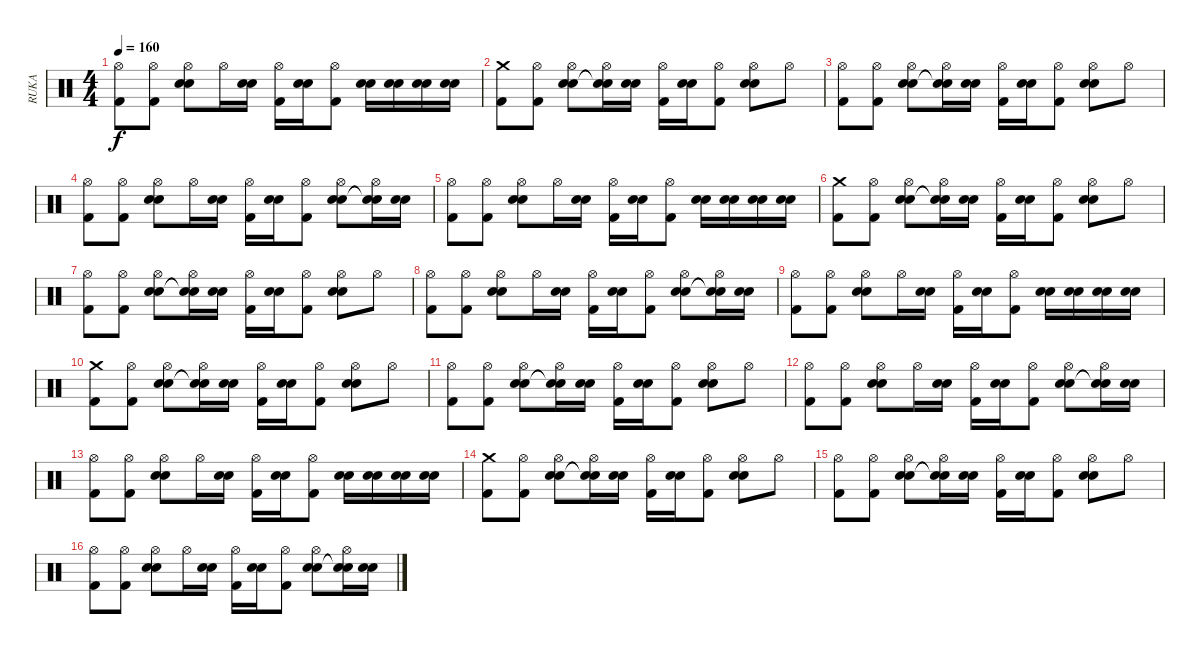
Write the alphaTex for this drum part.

\track ("RUKA" "RUKA") {instrument percussion}
\staff {score}
\articulation defaults
\ts (4 4)
\tempo 160
\clef neutral
\ks c
("Hi-Hat (open)" "Kick (hit) 2").8{dy f} ("Hi-Hat (open)" "Kick (hit) 2").8 ("Hi-Hat (open)" "Snare (hit) 2" "Electric Snare (hit)").8 "Hi-Hat (open)".16 ("Snare (hit) 2" "Electric Snare (hit)").16 ("Hi-Hat (open)" "Kick (hit) 2").16 ("Snare (hit) 2" "Electric Snare (hit)").16 ("Hi-Hat (open)" "Kick (hit) 2").8 ("Snare (hit) 2" "Electric Snare (hit)").16 ("Snare (hit) 2" "Electric Snare (hit)").16 ("Snare (hit) 2" "Electric Snare (hit)").16 ("Snare (hit) 2" "Electric Snare (hit)").16 |
("Crash medium (hit)" "Kick (hit) 2").8 ("Hi-Hat (open)" "Kick (hit) 2").8 ("Hi-Hat (open)" "Snare (hit) 2" "Electric Snare (hit)").8 ("Hi-Hat (open)" "Snare (hit)"{t} "Snare (hit)"{t}).16 ("Snare (hit) 2" "Electric Snare (hit)").16 ("Hi-Hat (open)" "Kick (hit) 2").16 ("Snare (hit) 2" "Electric Snare (hit)").16 ("Hi-Hat (open)" "Kick (hit) 2").8 ("Hi-Hat (open)" "Snare (hit) 2" "Electric Snare (hit)").8 "Hi-Hat (open)".8 |
("Hi-Hat (open)" "Kick (hit) 2").8 ("Hi-Hat (open)" "Kick (hit) 2").8 ("Hi-Hat (open)" "Snare (hit) 2" "Electric Snare (hit)").8 ("Hi-Hat (open)" "Snare (hit)"{t} "Snare (hit)"{t}).16 ("Snare (hit) 2" "Electric Snare (hit)").16 ("Hi-Hat (open)" "Kick (hit) 2").16 ("Snare (hit) 2" "Electric Snare (hit)").16 ("Hi-Hat (open)" "Kick (hit) 2").8 ("Hi-Hat (open)" "Snare (hit) 2" "Electric Snare (hit)").8 "Hi-Hat (open)".8 |
("Hi-Hat (open)" "Kick (hit) 2").8 ("Hi-Hat (open)" "Kick (hit) 2").8 ("Hi-Hat (open)" "Snare (hit) 2" "Electric Snare (hit)").8 "Hi-Hat (open)".16 ("Snare (hit) 2" "Electric Snare (hit)").16 ("Hi-Hat (open)" "Kick (hit) 2").16 ("Snare (hit) 2" "Electric Snare (hit)").16 ("Hi-Hat (open)" "Kick (hit) 2").8 ("Hi-Hat (open)" "Snare (hit) 2" "Electric Snare (hit)").8 ("Hi-Hat (open)" "Snare (hit)"{t} "Snare (hit)"{t}).16 ("Snare (hit) 2" "Electric Snare (hit)").16 |
("Hi-Hat (open)" "Kick (hit) 2").8 ("Hi-Hat (open)" "Kick (hit) 2").8 ("Hi-Hat (open)" "Snare (hit) 2" "Electric Snare (hit)").8 "Hi-Hat (open)".16 ("Snare (hit) 2" "Electric Snare (hit)").16 ("Hi-Hat (open)" "Kick (hit) 2").16 ("Snare (hit) 2" "Electric Snare (hit)").16 ("Hi-Hat (open)" "Kick (hit) 2").8 ("Snare (hit) 2" "Electric Snare (hit)").16 ("Snare (hit) 2" "Electric Snare (hit)").16 ("Snare (hit) 2" "Electric Snare (hit)").16 ("Snare (hit) 2" "Electric Snare (hit)").16 |
("Crash medium (hit)" "Kick (hit) 2").8 ("Hi-Hat (open)" "Kick (hit) 2").8 ("Hi-Hat (open)" "Snare (hit) 2" "Electric Snare (hit)").8 ("Hi-Hat (open)" "Snare (hit)"{t} "Snare (hit)"{t}).16 ("Snare (hit) 2" "Electric Snare (hit)").16 ("Hi-Hat (open)" "Kick (hit) 2").16 ("Snare (hit) 2" "Electric Snare (hit)").16 ("Hi-Hat (open)" "Kick (hit) 2").8 ("Hi-Hat (open)" "Snare (hit) 2" "Electric Snare (hit)").8 "Hi-Hat (open)".8 |
("Hi-Hat (open)" "Kick (hit) 2").8 ("Hi-Hat (open)" "Kick (hit) 2").8 ("Hi-Hat (open)" "Snare (hit) 2" "Electric Snare (hit)").8 ("Hi-Hat (open)" "Snare (hit)"{t} "Snare (hit)"{t}).16 ("Snare (hit) 2" "Electric Snare (hit)").16 ("Hi-Hat (open)" "Kick (hit) 2").16 ("Snare (hit) 2" "Electric Snare (hit)").16 ("Hi-Hat (open)" "Kick (hit) 2").8 ("Hi-Hat (open)" "Snare (hit) 2" "Electric Snare (hit)").8 "Hi-Hat (open)".8 |
("Hi-Hat (open)" "Kick (hit) 2").8 ("Hi-Hat (open)" "Kick (hit) 2").8 ("Hi-Hat (open)" "Snare (hit) 2" "Electric Snare (hit)").8 "Hi-Hat (open)".16 ("Snare (hit) 2" "Electric Snare (hit)").16 ("Hi-Hat (open)" "Kick (hit) 2").16 ("Snare (hit) 2" "Electric Snare (hit)").16 ("Hi-Hat (open)" "Kick (hit) 2").8 ("Hi-Hat (open)" "Snare (hit) 2" "Electric Snare (hit)").8 ("Hi-Hat (open)" "Snare (hit)"{t} "Snare (hit)"{t}).16 ("Snare (hit) 2" "Electric Snare (hit)").16 |
("Hi-Hat (open)" "Kick (hit) 2").8 ("Hi-Hat (open)" "Kick (hit) 2").8 ("Hi-Hat (open)" "Snare (hit) 2" "Electric Snare (hit)").8 "Hi-Hat (open)".16 ("Snare (hit) 2" "Electric Snare (hit)").16 ("Hi-Hat (open)" "Kick (hit) 2").16 ("Snare (hit) 2" "Electric Snare (hit)").16 ("Hi-Hat (open)" "Kick (hit) 2").8 ("Snare (hit) 2" "Electric Snare (hit)").16 ("Snare (hit) 2" "Electric Snare (hit)").16 ("Snare (hit) 2" "Electric Snare (hit)").16 ("Snare (hit) 2" "Electric Snare (hit)").16 |
("Crash medium (hit)" "Kick (hit) 2").8 ("Hi-Hat (open)" "Kick (hit) 2").8 ("Hi-Hat (open)" "Snare (hit) 2" "Electric Snare (hit)").8 ("Hi-Hat (open)" "Snare (hit)"{t} "Snare (hit)"{t}).16 ("Snare (hit) 2" "Electric Snare (hit)").16 ("Hi-Hat (open)" "Kick (hit) 2").16 ("Snare (hit) 2" "Electric Snare (hit)").16 ("Hi-Hat (open)" "Kick (hit) 2").8 ("Hi-Hat (open)" "Snare (hit) 2" "Electric Snare (hit)").8 "Hi-Hat (open)".8 |
("Hi-Hat (open)" "Kick (hit) 2").8 ("Hi-Hat (open)" "Kick (hit) 2").8 ("Hi-Hat (open)" "Snare (hit) 2" "Electric Snare (hit)").8 ("Hi-Hat (open)" "Snare (hit)"{t} "Snare (hit)"{t}).16 ("Snare (hit) 2" "Electric Snare (hit)").16 ("Hi-Hat (open)" "Kick (hit) 2").16 ("Snare (hit) 2" "Electric Snare (hit)").16 ("Hi-Hat (open)" "Kick (hit) 2").8 ("Hi-Hat (open)" "Snare (hit) 2" "Electric Snare (hit)").8 "Hi-Hat (open)".8 |
("Hi-Hat (open)" "Kick (hit) 2").8 ("Hi-Hat (open)" "Kick (hit) 2").8 ("Hi-Hat (open)" "Snare (hit) 2" "Electric Snare (hit)").8 "Hi-Hat (open)".16 ("Snare (hit) 2" "Electric Snare (hit)").16 ("Hi-Hat (open)" "Kick (hit) 2").16 ("Snare (hit) 2" "Electric Snare (hit)").16 ("Hi-Hat (open)" "Kick (hit) 2").8 ("Hi-Hat (open)" "Snare (hit) 2" "Electric Snare (hit)").8 ("Hi-Hat (open)" "Snare (hit)"{t} "Snare (hit)"{t}).16 ("Snare (hit) 2" "Electric Snare (hit)").16 |
("Hi-Hat (open)" "Kick (hit) 2").8 ("Hi-Hat (open)" "Kick (hit) 2").8 ("Hi-Hat (open)" "Snare (hit) 2" "Electric Snare (hit)").8 "Hi-Hat (open)".16 ("Snare (hit) 2" "Electric Snare (hit)").16 ("Hi-Hat (open)" "Kick (hit) 2").16 ("Snare (hit) 2" "Electric Snare (hit)").16 ("Hi-Hat (open)" "Kick (hit) 2").8 ("Snare (hit) 2" "Electric Snare (hit)").16 ("Snare (hit) 2" "Electric Snare (hit)").16 ("Snare (hit) 2" "Electric Snare (hit)").16 ("Snare (hit) 2" "Electric Snare (hit)").16 |
("Crash medium (hit)" "Kick (hit) 2").8 ("Hi-Hat (open)" "Kick (hit) 2").8 ("Hi-Hat (open)" "Snare (hit) 2" "Electric Snare (hit)").8 ("Hi-Hat (open)" "Snare (hit)"{t} "Snare (hit)"{t}).16 ("Snare (hit) 2" "Electric Snare (hit)").16 ("Hi-Hat (open)" "Kick (hit) 2").16 ("Snare (hit) 2" "Electric Snare (hit)").16 ("Hi-Hat (open)" "Kick (hit) 2").8 ("Hi-Hat (open)" "Snare (hit) 2" "Electric Snare (hit)").8 "Hi-Hat (open)".8 |
("Hi-Hat (open)" "Kick (hit) 2").8 ("Hi-Hat (open)" "Kick (hit) 2").8 ("Hi-Hat (open)" "Snare (hit) 2" "Electric Snare (hit)").8 ("Hi-Hat (open)" "Snare (hit)"{t} "Snare (hit)"{t}).16 ("Snare (hit) 2" "Electric Snare (hit)").16 ("Hi-Hat (open)" "Kick (hit) 2").16 ("Snare (hit) 2" "Electric Snare (hit)").16 ("Hi-Hat (open)" "Kick (hit) 2").8 ("Hi-Hat (open)" "Snare (hit) 2" "Electric Snare (hit)").8 "Hi-Hat (open)".8 |
("Hi-Hat (open)" "Kick (hit) 2").8 ("Hi-Hat (open)" "Kick (hit) 2").8 ("Hi-Hat (open)" "Snare (hit) 2" "Electric Snare (hit)").8 "Hi-Hat (open)".16 ("Snare (hit) 2" "Electric Snare (hit)").16 ("Hi-Hat (open)" "Kick (hit) 2").16 ("Snare (hit) 2" "Electric Snare (hit)").16 ("Hi-Hat (open)" "Kick (hit) 2").8 ("Hi-Hat (open)" "Snare (hit) 2" "Electric Snare (hit)").8 ("Hi-Hat (open)" "Snare (hit)"{t} "Snare (hit)"{t}).16 ("Snare (hit) 2" "Electric Snare (hit)").16
